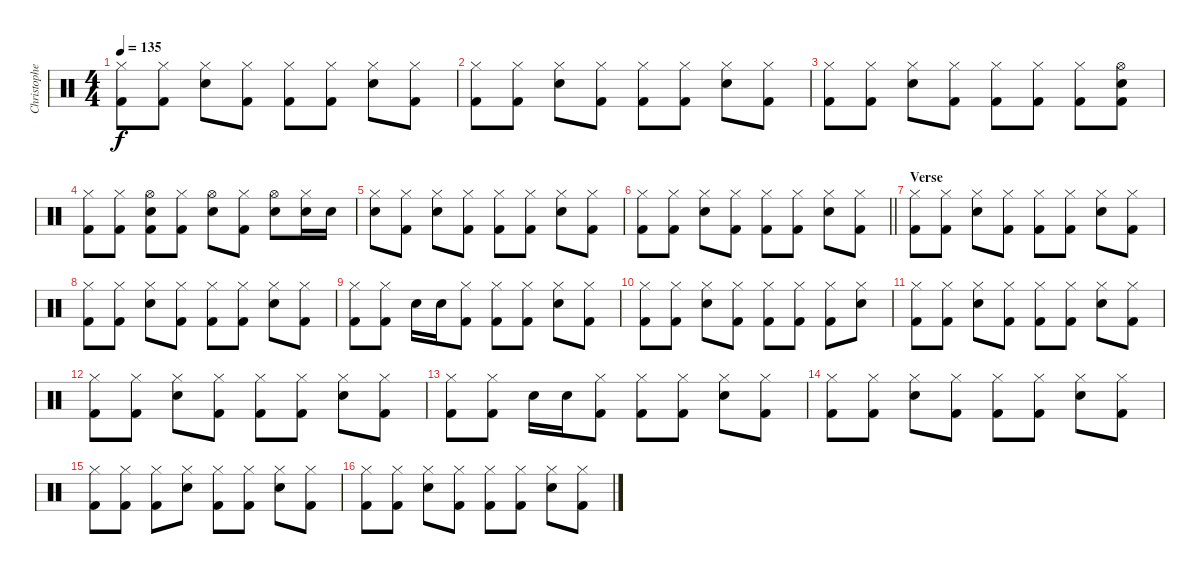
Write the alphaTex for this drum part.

\track ("Christopher - Drums" "Christophe") {instrument percussion}
\staff {score}
\articulation defaults
\ts (4 4)
\tempo 135
\clef neutral
\ks c
("Hi-Hat (closed)" "Kick (hit) 2").8{dy f} ("Hi-Hat (closed)" "Kick (hit) 2").8 ("Hi-Hat (closed)" "Snare (hit) 2").8 ("Hi-Hat (closed)" "Kick (hit) 2").8 ("Hi-Hat (closed)" "Kick (hit) 2").8 ("Hi-Hat (closed)" "Kick (hit) 2").8 ("Hi-Hat (closed)" "Snare (hit) 2").8 ("Hi-Hat (closed)" "Kick (hit) 2").8 |
("Hi-Hat (closed)" "Kick (hit) 2").8 ("Hi-Hat (closed)" "Kick (hit) 2").8 ("Hi-Hat (closed)" "Snare (hit) 2").8 ("Hi-Hat (closed)" "Kick (hit) 2").8 ("Hi-Hat (closed)" "Kick (hit) 2").8 ("Hi-Hat (closed)" "Kick (hit) 2").8 ("Hi-Hat (closed)" "Snare (hit) 2").8 ("Hi-Hat (closed)" "Kick (hit) 2").8 |
("Hi-Hat (closed)" "Kick (hit) 2").8 ("Hi-Hat (closed)" "Kick (hit) 2").8 ("Hi-Hat (closed)" "Snare (hit) 2").8 ("Hi-Hat (closed)" "Kick (hit) 2").8 ("Hi-Hat (closed)" "Kick (hit) 2").8 ("Hi-Hat (closed)" "Kick (hit) 2").8 ("Hi-Hat (closed)" "Kick (hit) 2").8 ("Hi-Hat (open)" "Snare (hit) 2" "Kick (hit) 2").8 |
("Hi-Hat (closed)" "Kick (hit) 2").8 ("Hi-Hat (closed)" "Kick (hit) 2").8 ("Hi-Hat (open)" "Snare (hit) 2" "Kick (hit) 2").8 ("Hi-Hat (closed)" "Kick (hit) 2").8 ("Hi-Hat (open)" "Snare (hit) 2").8 ("Hi-Hat (closed)" "Kick (hit) 2").8 ("Hi-Hat (open)" "Snare (hit) 2").8 ("Hi-Hat (closed)" "Snare (hit) 2").16 "Snare (hit) 2".16 |
("Hi-Hat (closed)" "Snare (hit) 2").8 ("Hi-Hat (closed)" "Kick (hit) 2").8 ("Hi-Hat (closed)" "Snare (hit) 2").8 ("Hi-Hat (closed)" "Kick (hit) 2").8 ("Hi-Hat (closed)" "Kick (hit) 2").8 ("Hi-Hat (closed)" "Kick (hit) 2").8 ("Hi-Hat (closed)" "Snare (hit) 2").8 ("Hi-Hat (closed)" "Kick (hit) 2").8 |
\barLineRight lightlight
("Hi-Hat (closed)" "Kick (hit) 2").8 ("Hi-Hat (closed)" "Kick (hit) 2").8 ("Hi-Hat (closed)" "Snare (hit) 2").8 ("Hi-Hat (closed)" "Kick (hit) 2").8 ("Hi-Hat (closed)" "Kick (hit) 2").8 ("Hi-Hat (closed)" "Kick (hit) 2").8 ("Hi-Hat (closed)" "Snare (hit) 2").8 ("Hi-Hat (closed)" "Kick (hit) 2").8 |
\section ("" "Verse")
("Hi-Hat (closed)" "Kick (hit) 2").8 ("Hi-Hat (closed)" "Kick (hit) 2").8 ("Hi-Hat (closed)" "Snare (hit) 2").8 ("Hi-Hat (closed)" "Kick (hit) 2").8 ("Hi-Hat (closed)" "Kick (hit) 2").8 ("Hi-Hat (closed)" "Kick (hit) 2").8 ("Hi-Hat (closed)" "Snare (hit) 2").8 ("Hi-Hat (closed)" "Kick (hit) 2").8 |
("Hi-Hat (closed)" "Kick (hit) 2").8 ("Hi-Hat (closed)" "Kick (hit) 2").8 ("Hi-Hat (closed)" "Snare (hit) 2").8 ("Hi-Hat (closed)" "Kick (hit) 2").8 ("Hi-Hat (closed)" "Kick (hit) 2").8 ("Hi-Hat (closed)" "Kick (hit) 2").8 ("Hi-Hat (closed)" "Snare (hit) 2").8 ("Hi-Hat (closed)" "Kick (hit) 2").8 |
("Hi-Hat (closed)" "Kick (hit) 2").8 ("Hi-Hat (closed)" "Kick (hit) 2").8 "Snare (hit) 2".16 "Snare (hit) 2".16 ("Hi-Hat (closed)" "Kick (hit) 2").8 ("Hi-Hat (closed)" "Kick (hit) 2").8 ("Hi-Hat (closed)" "Kick (hit) 2").8 ("Hi-Hat (closed)" "Snare (hit) 2").8 ("Hi-Hat (closed)" "Kick (hit) 2").8 |
("Hi-Hat (closed)" "Kick (hit) 2").8 ("Hi-Hat (closed)" "Kick (hit) 2").8 ("Hi-Hat (closed)" "Snare (hit) 2").8 ("Hi-Hat (closed)" "Kick (hit) 2").8 ("Hi-Hat (closed)" "Kick (hit) 2").8 ("Hi-Hat (closed)" "Kick (hit) 2").8 ("Hi-Hat (closed)" "Kick (hit) 2").8 ("Hi-Hat (closed)" "Snare (hit) 2").8 |
("Hi-Hat (closed)" "Kick (hit) 2").8 ("Hi-Hat (closed)" "Kick (hit) 2").8 ("Hi-Hat (closed)" "Snare (hit) 2").8 ("Hi-Hat (closed)" "Kick (hit) 2").8 ("Hi-Hat (closed)" "Kick (hit) 2").8 ("Hi-Hat (closed)" "Kick (hit) 2").8 ("Hi-Hat (closed)" "Snare (hit) 2").8 ("Hi-Hat (closed)" "Kick (hit) 2").8 |
("Hi-Hat (closed)" "Kick (hit) 2").8 ("Hi-Hat (closed)" "Kick (hit) 2").8 ("Hi-Hat (closed)" "Snare (hit) 2").8 ("Hi-Hat (closed)" "Kick (hit) 2").8 ("Hi-Hat (closed)" "Kick (hit) 2").8 ("Hi-Hat (closed)" "Kick (hit) 2").8 ("Hi-Hat (closed)" "Snare (hit) 2").8 ("Hi-Hat (closed)" "Kick (hit) 2").8 |
("Hi-Hat (closed)" "Kick (hit) 2").8 ("Hi-Hat (closed)" "Kick (hit) 2").8 "Snare (hit) 2".16 "Snare (hit) 2".16 ("Hi-Hat (closed)" "Kick (hit) 2").8 ("Hi-Hat (closed)" "Kick (hit) 2").8 ("Hi-Hat (closed)" "Kick (hit) 2").8 ("Hi-Hat (closed)" "Snare (hit) 2").8 ("Hi-Hat (closed)" "Kick (hit) 2").8 |
("Hi-Hat (closed)" "Kick (hit) 2").8 ("Hi-Hat (closed)" "Kick (hit) 2").8 ("Hi-Hat (closed)" "Snare (hit) 2").8 ("Hi-Hat (closed)" "Kick (hit) 2").8 ("Hi-Hat (closed)" "Kick (hit) 2").8 ("Hi-Hat (closed)" "Kick (hit) 2").8 ("Hi-Hat (closed)" "Snare (hit) 2").8 ("Hi-Hat (closed)" "Kick (hit) 2").8 |
("Hi-Hat (closed)" "Kick (hit) 2").8 ("Hi-Hat (closed)" "Kick (hit) 2").8 ("Hi-Hat (closed)" "Kick (hit) 2").8 ("Hi-Hat (closed)" "Snare (hit) 2").8 ("Hi-Hat (closed)" "Kick (hit) 2").8 ("Hi-Hat (closed)" "Kick (hit) 2").8 ("Hi-Hat (closed)" "Snare (hit) 2").8 ("Hi-Hat (closed)" "Kick (hit) 2").8 |
("Hi-Hat (closed)" "Kick (hit) 2").8 ("Hi-Hat (closed)" "Kick (hit) 2").8 ("Hi-Hat (closed)" "Snare (hit) 2").8 ("Hi-Hat (closed)" "Kick (hit) 2").8 ("Hi-Hat (closed)" "Kick (hit) 2").8 ("Hi-Hat (closed)" "Kick (hit) 2").8 ("Hi-Hat (closed)" "Snare (hit) 2").8 ("Hi-Hat (closed)" "Kick (hit) 2").8
